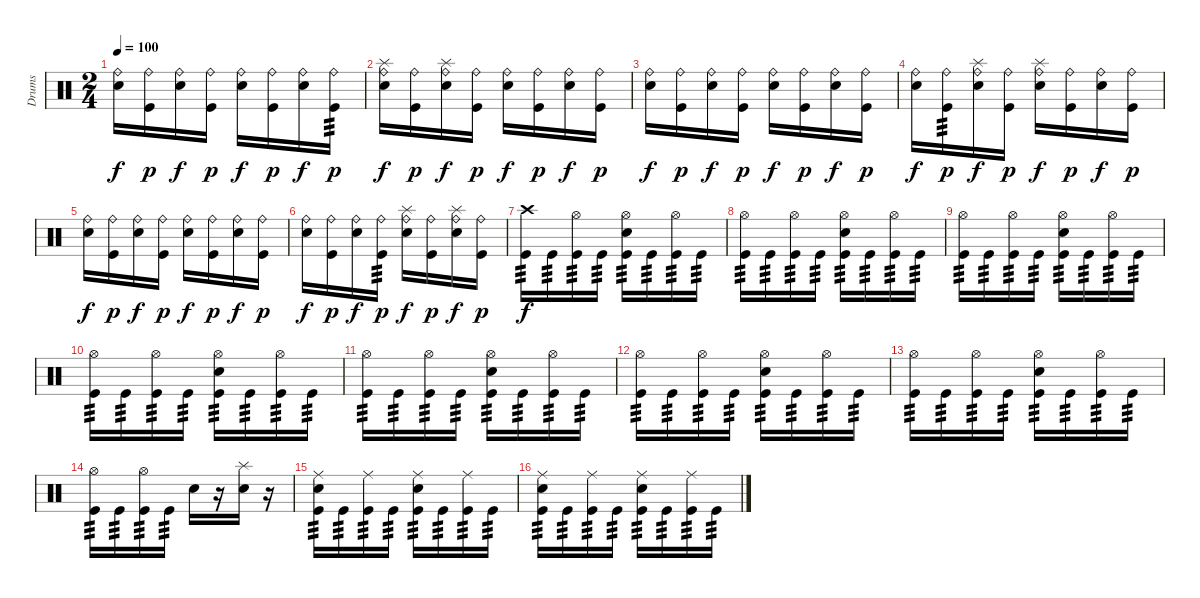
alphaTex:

\track ("Drums" "Drums") {instrument percussion}
\staff {score}
\articulation defaults
\ts (2 4)
\tempo 100
\clef neutral
\ks c
("Electric Snare (hit)" "Ride (bell)").16{dy f} ("Kick (hit)" "Ride (bell)").16{dy p} ("Electric Snare (hit)" "Ride (bell)").16{dy f} ("Kick (hit)" "Ride (bell)").16{dy p} ("Electric Snare (hit)" "Ride (bell)").16{dy f} ("Kick (hit)" "Ride (bell)").16{dy p} ("Electric Snare (hit)" "Ride (bell)").16{dy f} ("Kick (hit)" "Ride (bell)").16{tp 3 dy p} |
("Electric Snare (hit)" "Splash (hit)" "Ride (bell)").16{dy f} ("Kick (hit)" "Ride (bell)").16{dy p} ("Electric Snare (hit)" "Splash (hit)" "Ride (bell)").16{dy f} ("Kick (hit)" "Ride (bell)").16{dy p} ("Electric Snare (hit)" "Ride (bell)").16{dy f} ("Kick (hit)" "Ride (bell)").16{dy p} ("Electric Snare (hit)" "Ride (bell)").16{dy f} ("Kick (hit)" "Ride (bell)").16{dy p} |
("Electric Snare (hit)" "Ride (bell)").16{dy f} ("Kick (hit)" "Ride (bell)").16{dy p} ("Electric Snare (hit)" "Ride (bell)").16{dy f} ("Kick (hit)" "Ride (bell)").16{dy p} ("Electric Snare (hit)" "Ride (bell)").16{dy f} ("Kick (hit)" "Ride (bell)").16{dy p} ("Electric Snare (hit)" "Ride (bell)").16{dy f} ("Kick (hit)" "Ride (bell)").16{dy p} |
("Electric Snare (hit)" "Ride (bell)").16{dy f} ("Kick (hit)" "Ride (bell)").16{tp 3 dy p} ("Electric Snare (hit)" "Splash (hit)" "Ride (bell)").16{dy f} ("Kick (hit)" "Ride (bell)").16{dy p} ("Electric Snare (hit)" "Splash (hit)" "Ride (bell)").16{dy f} ("Kick (hit)" "Ride (bell)").16{dy p} ("Electric Snare (hit)" "Ride (bell)").16{dy f} ("Kick (hit)" "Ride (bell)").16{dy p} |
("Electric Snare (hit)" "Ride (bell)").16{dy f} ("Kick (hit)" "Ride (bell)").16{dy p} ("Electric Snare (hit)" "Ride (bell)").16{dy f} ("Kick (hit)" "Ride (bell)").16{dy p} ("Electric Snare (hit)" "Ride (bell)").16{dy f} ("Kick (hit)" "Ride (bell)").16{dy p} ("Electric Snare (hit)" "Ride (bell)").16{dy f} ("Kick (hit)" "Ride (bell)").16{dy p} |
("Electric Snare (hit)" "Ride (bell)").16{dy f} ("Kick (hit)" "Ride (bell)").16{dy p} ("Electric Snare (hit)" "Ride (bell)").16{dy f} ("Kick (hit)" "Ride (bell)").16{tp 3 dy p} ("Electric Snare (hit)" "Splash (hit)" "Ride (bell)").16{dy f} ("Kick (hit)" "Ride (bell)").16{dy p} ("Electric Snare (hit)" "Splash (hit)" "Ride (bell)").16{dy f} ("Kick (hit)" "Ride (bell)").16{dy p} |
("Kick (hit)" "Crash high (hit)").16{tp 3 dy f} "Kick (hit)".16{tp 3} ("Kick (hit)" "Hi-Hat (open)").16{tp 3} "Kick (hit)".16{tp 3} ("Kick (hit)" "Hi-Hat (open)" "Electric Snare (hit)").16{tp 3} "Kick (hit)".16{tp 3} ("Kick (hit)" "Hi-Hat (open)").16{tp 3} "Kick (hit)".16{tp 3} |
("Kick (hit)" "Hi-Hat (open)").16{tp 3} "Kick (hit)".16{tp 3} ("Kick (hit)" "Hi-Hat (open)").16{tp 3} "Kick (hit)".16{tp 3} ("Kick (hit)" "Hi-Hat (open)" "Electric Snare (hit)").16{tp 3} "Kick (hit)".16{tp 3} ("Kick (hit)" "Hi-Hat (open)").16{tp 3} "Kick (hit)".16{tp 3} |
("Kick (hit)" "Hi-Hat (open)").16{tp 3} "Kick (hit)".16{tp 3} ("Kick (hit)" "Hi-Hat (open)").16{tp 3} "Kick (hit)".16{tp 3} ("Kick (hit)" "Hi-Hat (open)" "Electric Snare (hit)").16{tp 3} "Kick (hit)".16{tp 3} ("Kick (hit)" "Hi-Hat (open)").16{tp 3} "Kick (hit)".16{tp 3} |
("Kick (hit)" "Hi-Hat (open)").16{tp 3} "Kick (hit)".16{tp 3} ("Kick (hit)" "Hi-Hat (open)").16{tp 3} "Kick (hit)".16{tp 3} ("Kick (hit)" "Hi-Hat (open)" "Electric Snare (hit)").16{tp 3} "Kick (hit)".16{tp 3} ("Kick (hit)" "Hi-Hat (open)").16{tp 3} "Kick (hit)".16{tp 3} |
("Kick (hit)" "Hi-Hat (open)").16{tp 3} "Kick (hit)".16{tp 3} ("Kick (hit)" "Hi-Hat (open)").16{tp 3} "Kick (hit)".16{tp 3} ("Kick (hit)" "Hi-Hat (open)" "Electric Snare (hit)").16{tp 3} "Kick (hit)".16{tp 3} ("Kick (hit)" "Hi-Hat (open)").16{tp 3} "Kick (hit)".16{tp 3} |
("Kick (hit)" "Hi-Hat (open)").16{tp 3} "Kick (hit)".16{tp 3} ("Kick (hit)" "Hi-Hat (open)").16{tp 3} "Kick (hit)".16{tp 3} ("Kick (hit)" "Hi-Hat (open)" "Electric Snare (hit)").16{tp 3} "Kick (hit)".16{tp 3} ("Kick (hit)" "Hi-Hat (open)").16{tp 3} "Kick (hit)".16{tp 3} |
("Kick (hit)" "Hi-Hat (open)").16{tp 3} "Kick (hit)".16{tp 3} ("Kick (hit)" "Hi-Hat (open)").16{tp 3} "Kick (hit)".16{tp 3} ("Kick (hit)" "Hi-Hat (open)" "Electric Snare (hit)").16{tp 3} "Kick (hit)".16{tp 3} ("Kick (hit)" "Hi-Hat (open)").16{tp 3} "Kick (hit)".16{tp 3} |
("Kick (hit)" "Hi-Hat (open)").16{tp 3} "Kick (hit)".16{tp 3} ("Kick (hit)" "Hi-Hat (open)").16{tp 3} "Kick (hit)".16{tp 3} "Electric Snare (hit)".16 r.16 ("Splash (hit)" "Electric Snare (hit)").16 r.16 |
("Kick (hit)" "Ride (middle)" "Electric Snare (hit)").16{tp 3} "Kick (hit)".16{tp 3} ("Kick (hit)" "Ride (middle)").16{tp 3} "Kick (hit)".16{tp 3} ("Kick (hit)" "Ride (middle)" "Electric Snare (hit)").16{tp 3} "Kick (hit)".16{tp 3} ("Kick (hit)" "Ride (middle)").16{tp 3} "Kick (hit)".16{tp 3} |
("Kick (hit)" "Ride (middle)" "Electric Snare (hit)").16{tp 3} "Kick (hit)".16{tp 3} ("Kick (hit)" "Ride (middle)").16{tp 3} "Kick (hit)".16{tp 3} ("Kick (hit)" "Ride (middle)" "Electric Snare (hit)").16{tp 3} "Kick (hit)".16{tp 3} ("Kick (hit)" "Ride (middle)").16{tp 3} "Kick (hit)".16{tp 3}
